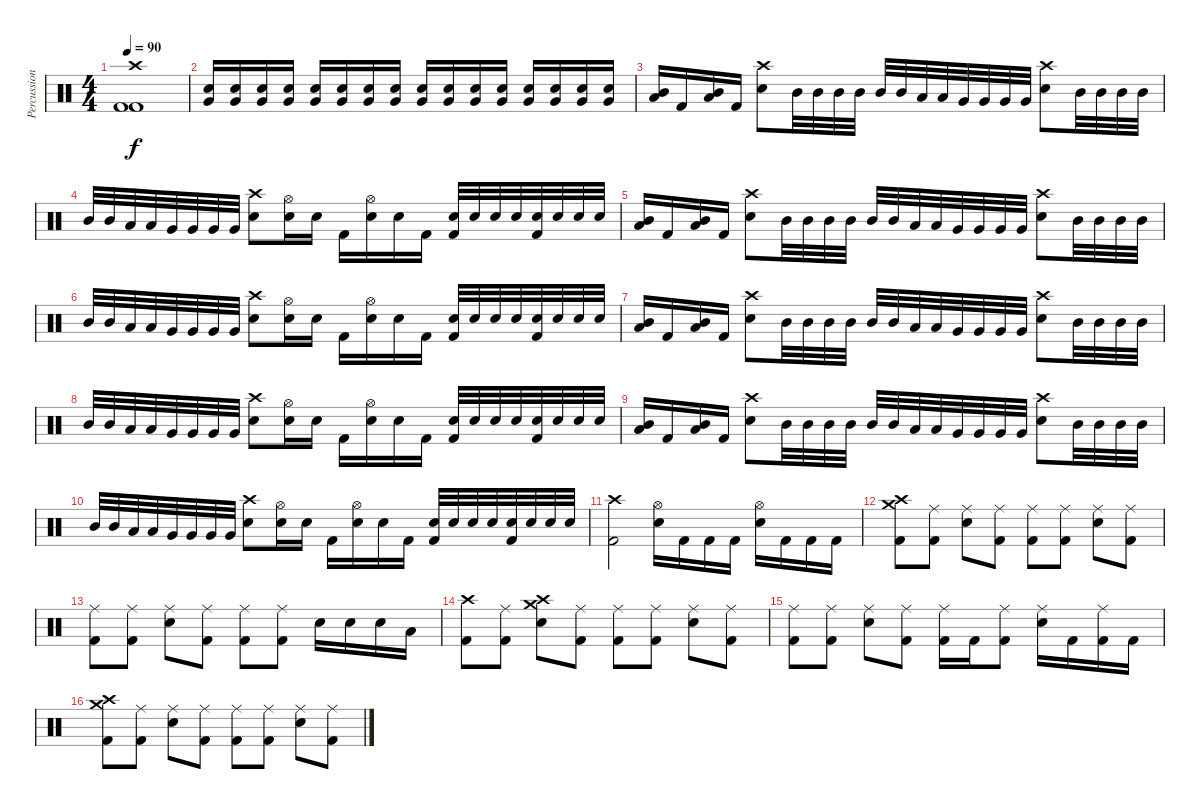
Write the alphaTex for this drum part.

\track ("Percussion" "Percussion") {instrument percussion}
\staff {score}
\articulation defaults
\ts (4 4)
\tempo 90
\clef neutral
\ks c
("Crash high (hit)" "Kick (hit) 2" "Kick (hit) 2").1{dy f} |
("Electric Snare (hit)" "Very Low Tom (hit)").16 ("Electric Snare (hit)" "Very Low Tom (hit)").16 ("Electric Snare (hit)" "Very Low Tom (hit)").16 ("Electric Snare (hit)" "Very Low Tom (hit)").16 ("Electric Snare (hit)" "Very Low Tom (hit)").16 ("Electric Snare (hit)" "Very Low Tom (hit)").16 ("Electric Snare (hit)" "Very Low Tom (hit)").16 ("Electric Snare (hit)" "Very Low Tom (hit)").16 ("Electric Snare (hit)" "Very Low Tom (hit)").16 ("Electric Snare (hit)" "Very Low Tom (hit)").16 ("Electric Snare (hit)" "Very Low Tom (hit)").16 ("Electric Snare (hit)" "Very Low Tom (hit)").16 ("Electric Snare (hit)" "Very Low Tom (hit)").16 ("Electric Snare (hit)" "Very Low Tom (hit)").16 ("Electric Snare (hit)" "Very Low Tom (hit)").16 ("Electric Snare (hit)" "Very Low Tom (hit)").16 |
("Mid Tom (hit)" "Low Tom (hit)").16 "Kick (hit) 2".16 ("Mid Tom (hit)" "Low Tom (hit)").16 "Kick (hit) 2".16 ("Crash high (hit)" "Electric Snare (hit)").8 "Mid Tom (hit)".32 "Mid Tom (hit)".32 "Mid Tom (hit)".32 "Mid Tom (hit)".32 "Mid Tom (hit)".32 "Mid Tom (hit)".32 "Low Tom (hit)".32 "Low Tom (hit)".32 "Very Low Tom (hit)".32 "Very Low Tom (hit)".32 "Very Low Tom (hit)".32 "Very Low Tom (hit)".32 ("Crash high (hit)" "Electric Snare (hit)").8 "Mid Tom (hit)".32 "Mid Tom (hit)".32 "Mid Tom (hit)".32 "Mid Tom (hit)".32 |
"Mid Tom (hit)".32 "Mid Tom (hit)".32 "Low Tom (hit)".32 "Low Tom (hit)".32 "Very Low Tom (hit)".32 "Very Low Tom (hit)".32 "Very Low Tom (hit)".32 "Very Low Tom (hit)".32 ("Crash high (hit)" "Electric Snare (hit)").8 ("Hi-Hat (open)" "Electric Snare (hit)").16 "Electric Snare (hit)".16 "Kick (hit) 2".16 ("Hi-Hat (open)" "Electric Snare (hit)").16 "Electric Snare (hit)".16 "Kick (hit) 2".16 ("Electric Snare (hit)" "Kick (hit) 2").32 "Electric Snare (hit)".32 "Electric Snare (hit)".32 "Electric Snare (hit)".32 ("Electric Snare (hit)" "Kick (hit) 2").32 "Electric Snare (hit)".32 "Electric Snare (hit)".32 "Electric Snare (hit)".32 |
("Mid Tom (hit)" "Low Tom (hit)").16 "Kick (hit) 2".16 ("Mid Tom (hit)" "Low Tom (hit)").16 "Kick (hit) 2".16 ("Crash high (hit)" "Electric Snare (hit)").8 "Mid Tom (hit)".32 "Mid Tom (hit)".32 "Mid Tom (hit)".32 "Mid Tom (hit)".32 "Mid Tom (hit)".32 "Mid Tom (hit)".32 "Low Tom (hit)".32 "Low Tom (hit)".32 "Very Low Tom (hit)".32 "Very Low Tom (hit)".32 "Very Low Tom (hit)".32 "Very Low Tom (hit)".32 ("Crash high (hit)" "Electric Snare (hit)").8 "Mid Tom (hit)".32 "Mid Tom (hit)".32 "Mid Tom (hit)".32 "Mid Tom (hit)".32 |
"Mid Tom (hit)".32 "Mid Tom (hit)".32 "Low Tom (hit)".32 "Low Tom (hit)".32 "Very Low Tom (hit)".32 "Very Low Tom (hit)".32 "Very Low Tom (hit)".32 "Very Low Tom (hit)".32 ("Crash high (hit)" "Electric Snare (hit)").8 ("Hi-Hat (open)" "Electric Snare (hit)").16 "Electric Snare (hit)".16 "Kick (hit) 2".16 ("Hi-Hat (open)" "Electric Snare (hit)").16 "Electric Snare (hit)".16 "Kick (hit) 2".16 ("Electric Snare (hit)" "Kick (hit) 2").32 "Electric Snare (hit)".32 "Electric Snare (hit)".32 "Electric Snare (hit)".32 ("Electric Snare (hit)" "Kick (hit) 2").32 "Electric Snare (hit)".32 "Electric Snare (hit)".32 "Electric Snare (hit)".32 |
("Mid Tom (hit)" "Low Tom (hit)").16 "Kick (hit) 2".16 ("Mid Tom (hit)" "Low Tom (hit)").16 "Kick (hit) 2".16 ("Crash high (hit)" "Electric Snare (hit)").8 "Mid Tom (hit)".32 "Mid Tom (hit)".32 "Mid Tom (hit)".32 "Mid Tom (hit)".32 "Mid Tom (hit)".32 "Mid Tom (hit)".32 "Low Tom (hit)".32 "Low Tom (hit)".32 "Very Low Tom (hit)".32 "Very Low Tom (hit)".32 "Very Low Tom (hit)".32 "Very Low Tom (hit)".32 ("Crash high (hit)" "Electric Snare (hit)").8 "Mid Tom (hit)".32 "Mid Tom (hit)".32 "Mid Tom (hit)".32 "Mid Tom (hit)".32 |
"Mid Tom (hit)".32 "Mid Tom (hit)".32 "Low Tom (hit)".32 "Low Tom (hit)".32 "Very Low Tom (hit)".32 "Very Low Tom (hit)".32 "Very Low Tom (hit)".32 "Very Low Tom (hit)".32 ("Crash high (hit)" "Electric Snare (hit)").8 ("Hi-Hat (open)" "Electric Snare (hit)").16 "Electric Snare (hit)".16 "Kick (hit) 2".16 ("Hi-Hat (open)" "Electric Snare (hit)").16 "Electric Snare (hit)".16 "Kick (hit) 2".16 ("Electric Snare (hit)" "Kick (hit) 2").32 "Electric Snare (hit)".32 "Electric Snare (hit)".32 "Electric Snare (hit)".32 ("Electric Snare (hit)" "Kick (hit) 2").32 "Electric Snare (hit)".32 "Electric Snare (hit)".32 "Electric Snare (hit)".32 |
("Mid Tom (hit)" "Low Tom (hit)").16 "Kick (hit) 2".16 ("Mid Tom (hit)" "Low Tom (hit)").16 "Kick (hit) 2".16 ("Crash high (hit)" "Electric Snare (hit)").8 "Mid Tom (hit)".32 "Mid Tom (hit)".32 "Mid Tom (hit)".32 "Mid Tom (hit)".32 "Mid Tom (hit)".32 "Mid Tom (hit)".32 "Low Tom (hit)".32 "Low Tom (hit)".32 "Very Low Tom (hit)".32 "Very Low Tom (hit)".32 "Very Low Tom (hit)".32 "Very Low Tom (hit)".32 ("Crash high (hit)" "Electric Snare (hit)").8 "Mid Tom (hit)".32 "Mid Tom (hit)".32 "Mid Tom (hit)".32 "Mid Tom (hit)".32 |
"Mid Tom (hit)".32 "Mid Tom (hit)".32 "Low Tom (hit)".32 "Low Tom (hit)".32 "Very Low Tom (hit)".32 "Very Low Tom (hit)".32 "Very Low Tom (hit)".32 "Very Low Tom (hit)".32 ("Crash high (hit)" "Electric Snare (hit)").8 ("Hi-Hat (open)" "Electric Snare (hit)").16 "Electric Snare (hit)".16 "Kick (hit) 2".16 ("Hi-Hat (open)" "Electric Snare (hit)").16 "Electric Snare (hit)".16 "Kick (hit) 2".16 ("Electric Snare (hit)" "Kick (hit) 2").32 "Electric Snare (hit)".32 "Electric Snare (hit)".32 "Electric Snare (hit)".32 ("Electric Snare (hit)" "Kick (hit) 2").32 "Electric Snare (hit)".32 "Electric Snare (hit)".32 "Electric Snare (hit)".32 |
("Crash high (hit)" "Kick (hit) 2").2 ("Hi-Hat (open)" "Electric Snare (hit)").16 "Kick (hit) 2".16 "Kick (hit) 2".16 "Kick (hit) 2".16 ("Hi-Hat (open)" "Electric Snare (hit)").16 "Kick (hit) 2".16 "Kick (hit) 2".16 "Kick (hit) 2".16 |
("Crash medium (hit)" "Crash high (hit)" "Kick (hit) 2").8 ("Ride (middle)" "Kick (hit) 2").8 ("Ride (middle)" "Electric Snare (hit)").8 ("Ride (middle)" "Kick (hit) 2").8 ("Ride (middle)" "Kick (hit) 2").8 ("Ride (middle)" "Kick (hit) 2").8 ("Ride (middle)" "Electric Snare (hit)").8 ("Ride (middle)" "Kick (hit) 2").8 |
("Ride (middle)" "Kick (hit) 2").8 ("Ride (middle)" "Kick (hit) 2").8 ("Ride (middle)" "Electric Snare (hit)").8 ("Ride (middle)" "Kick (hit) 2").8 ("Ride (middle)" "Kick (hit) 2").8 ("Ride (middle)" "Kick (hit) 2").8 "Electric Snare (hit)".16 "Electric Snare (hit)".16 "Electric Snare (hit)".16 "Low Tom (hit)".16 |
("Crash high (hit)" "Kick (hit) 2").8 ("Ride (middle)" "Kick (hit) 2").8 ("Crash medium (hit)" "Crash high (hit)" "Electric Snare (hit)").8 ("Ride (middle)" "Kick (hit) 2").8 ("Ride (middle)" "Kick (hit) 2").8 ("Ride (middle)" "Kick (hit) 2").8 ("Ride (middle)" "Electric Snare (hit)").8 ("Ride (middle)" "Kick (hit) 2").8 |
("Ride (middle)" "Kick (hit) 2").8 ("Ride (middle)" "Kick (hit) 2").8 ("Ride (middle)" "Electric Snare (hit)").8 ("Ride (middle)" "Kick (hit) 2").8 ("Ride (middle)" "Kick (hit) 2").16 "Kick (hit) 2".16 ("Ride (middle)" "Kick (hit) 2").8 ("Ride (middle)" "Electric Snare (hit)").16 "Kick (hit) 2".16 ("Ride (middle)" "Kick (hit) 2").16 "Kick (hit) 2".16 |
("Crash medium (hit)" "Crash high (hit)" "Kick (hit) 2").8 ("Ride (middle)" "Kick (hit) 2").8 ("Ride (middle)" "Electric Snare (hit)").8 ("Ride (middle)" "Kick (hit) 2").8 ("Ride (middle)" "Kick (hit) 2").8 ("Ride (middle)" "Kick (hit) 2").8 ("Ride (middle)" "Electric Snare (hit)").8 ("Ride (middle)" "Kick (hit) 2").8
